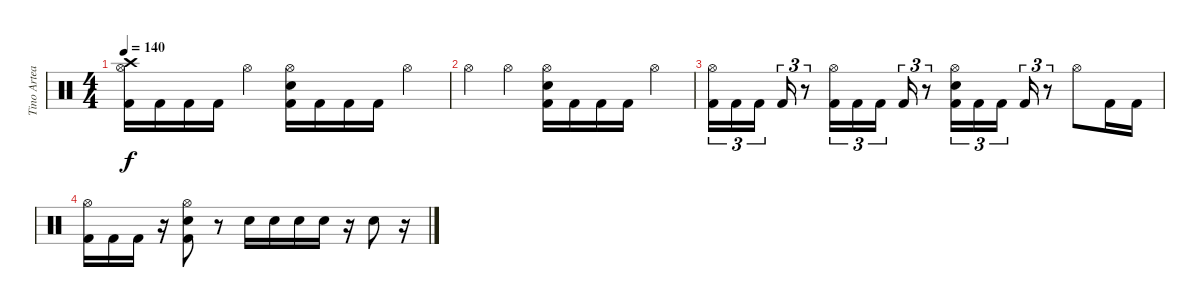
\track ("Tino Arteaga" "Tino Artea") {instrument percussion}
\staff {score}
\articulation defaults
\ts (4 4)
\tempo 140
\clef neutral
\ks c
("Hi-Hat (open)" "Crash high (hit)" "Kick (hit) 2").16{dy f} "Kick (hit) 2".16 "Kick (hit) 2".16 "Kick (hit) 2".16 "Hi-Hat (open)".4 ("Hi-Hat (open)" "Electric Snare (hit)" "Kick (hit) 2").16 "Kick (hit) 2".16 "Kick (hit) 2".16 "Kick (hit) 2".16 "Hi-Hat (open)".4 |
"Hi-Hat (open)".4 "Hi-Hat (open)".4 ("Hi-Hat (open)" "Electric Snare (hit)" "Kick (hit) 2").16 "Kick (hit) 2".16 "Kick (hit) 2".16 "Kick (hit) 2".16 "Hi-Hat (open)".4 |
("Hi-Hat (open)" "Kick (hit) 2").16{tu (3 2)} "Kick (hit) 2".16{tu (3 2)} "Kick (hit) 2".16{tu (3 2) beam splitsecondary} "Kick (hit) 2".16{tu (3 2)} r.8{tu (3 2)} ("Hi-Hat (open)" "Kick (hit) 2").16{tu (3 2)} "Kick (hit) 2".16{tu (3 2)} "Kick (hit) 2".16{tu (3 2) beam splitsecondary} "Kick (hit) 2".16{tu (3 2)} r.8{tu (3 2)} ("Hi-Hat (open)" "Electric Snare (hit)" "Kick (hit) 2").16{tu (3 2)} "Kick (hit) 2".16{tu (3 2)} "Kick (hit) 2".16{tu (3 2) beam splitsecondary} "Kick (hit) 2".16{tu (3 2)} r.8{tu (3 2)} "Hi-Hat (open)".8 "Kick (hit) 2".16 "Kick (hit) 2".16 |
("Hi-Hat (open)" "Kick (hit) 2").16 "Kick (hit) 2".16 "Kick (hit) 2".16 r.16 ("Hi-Hat (open)" "Electric Snare (hit)" "Kick (hit) 2").8 r.8 "Electric Snare (hit)".16 "Electric Snare (hit)".16 "Electric Snare (hit)".16 "Electric Snare (hit)".16 r.16 "Electric Snare (hit)".8 r.16
